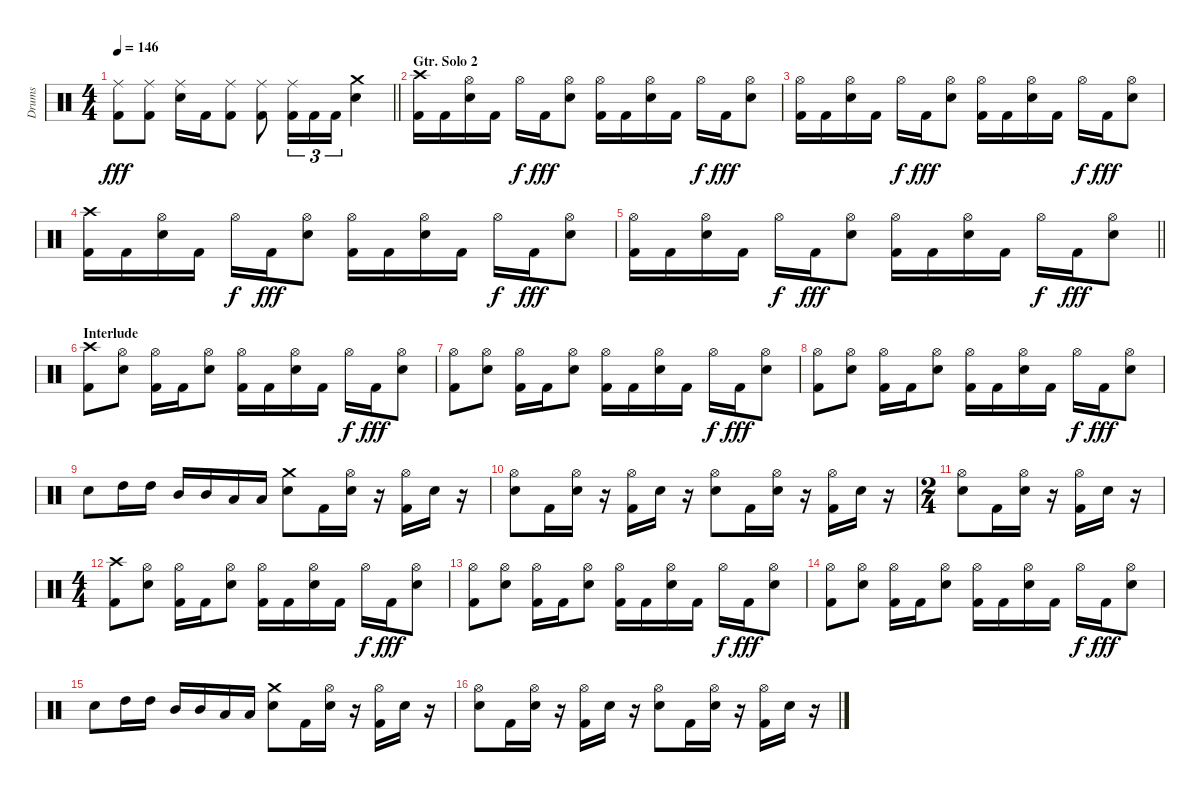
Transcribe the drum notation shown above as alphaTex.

\track ("Drums" "Drums") {instrument percussion}
\staff {score}
\articulation defaults
\ts (4 4)
\tempo 146
\clef neutral
\barLineRight lightlight
\ks c
("Ride (middle)" "Kick (hit) 2").8{dy fff} ("Ride (middle)" "Kick (hit) 2").8 ("Ride (middle)" "Snare (hit) 2").16 "Kick (hit) 2".16 ("Ride (middle)" "Kick (hit) 2").8 ("Ride (middle)" "Kick (hit) 2").8 ("Ride (middle)" "Kick (hit) 2").16{tu (3 2)} "Kick (hit) 2".16{tu (3 2)} "Kick (hit) 2".16{tu (3 2)} ("Crash medium (hit)" "Snare (hit) 2").4 |
\section ("" "Gtr. Solo 2")
("Crash high (hit)" "Kick (hit) 2").16 "Kick (hit) 2".16 ("Hi-Hat (open)" "Snare (hit) 2").16 "Kick (hit) 2".16 "Hi-Hat (open)".16{dy f} "Kick (hit) 2".16{dy fff} ("Hi-Hat (open)" "Snare (hit) 2").8 ("Hi-Hat (open)" "Kick (hit) 2").16 "Kick (hit) 2".16 ("Hi-Hat (open)" "Snare (hit) 2").16 "Kick (hit) 2".16 "Hi-Hat (open)".16{dy f} "Kick (hit) 2".16{dy fff} ("Hi-Hat (open)" "Snare (hit) 2").8 |
("Hi-Hat (open)" "Kick (hit) 2").16 "Kick (hit) 2".16 ("Hi-Hat (open)" "Snare (hit) 2").16 "Kick (hit) 2".16 "Hi-Hat (open)".16{dy f} "Kick (hit) 2".16{dy fff} ("Hi-Hat (open)" "Snare (hit) 2").8 ("Hi-Hat (open)" "Kick (hit) 2").16 "Kick (hit) 2".16 ("Hi-Hat (open)" "Snare (hit) 2").16 "Kick (hit) 2".16 "Hi-Hat (open)".16{dy f} "Kick (hit) 2".16{dy fff} ("Hi-Hat (open)" "Snare (hit) 2").8 |
("Crash high (hit)" "Kick (hit) 2").16 "Kick (hit) 2".16 ("Hi-Hat (open)" "Snare (hit) 2").16 "Kick (hit) 2".16 "Hi-Hat (open)".16{dy f} "Kick (hit) 2".16{dy fff} ("Hi-Hat (open)" "Snare (hit) 2").8 ("Hi-Hat (open)" "Kick (hit) 2").16 "Kick (hit) 2".16 ("Hi-Hat (open)" "Snare (hit) 2").16 "Kick (hit) 2".16 "Hi-Hat (open)".16{dy f} "Kick (hit) 2".16{dy fff} ("Hi-Hat (open)" "Snare (hit) 2").8 |
\barLineRight lightlight
("Hi-Hat (open)" "Kick (hit) 2").16 "Kick (hit) 2".16 ("Hi-Hat (open)" "Snare (hit) 2").16 "Kick (hit) 2".16 "Hi-Hat (open)".16{dy f} "Kick (hit) 2".16{dy fff} ("Hi-Hat (open)" "Snare (hit) 2").8 ("Hi-Hat (open)" "Kick (hit) 2").16 "Kick (hit) 2".16 ("Hi-Hat (open)" "Snare (hit) 2").16 "Kick (hit) 2".16 "Hi-Hat (open)".16{dy f} "Kick (hit) 2".16{dy fff} ("Hi-Hat (open)" "Snare (hit) 2").8 |
\section ("" "Interlude")
("Crash high (hit)" "Kick (hit) 2").8 ("Hi-Hat (open)" "Snare (hit) 2").8 ("Hi-Hat (open)" "Kick (hit) 2").16 "Kick (hit) 2".16 ("Hi-Hat (open)" "Snare (hit) 2").8 ("Hi-Hat (open)" "Kick (hit) 2").16 "Kick (hit) 2".16 ("Hi-Hat (open)" "Snare (hit) 2").16 "Kick (hit) 2".16 "Hi-Hat (open)".16{dy f} "Kick (hit) 2".16{dy fff} ("Hi-Hat (open)" "Snare (hit) 2").8 |
("Hi-Hat (open)" "Kick (hit) 2").8 ("Hi-Hat (open)" "Snare (hit) 2").8 ("Hi-Hat (open)" "Kick (hit) 2").16 "Kick (hit) 2".16 ("Hi-Hat (open)" "Snare (hit) 2").8 ("Hi-Hat (open)" "Kick (hit) 2").16 "Kick (hit) 2".16 ("Hi-Hat (open)" "Snare (hit) 2").16 "Kick (hit) 2".16 "Hi-Hat (open)".16{dy f} "Kick (hit) 2".16{dy fff} ("Hi-Hat (open)" "Snare (hit) 2").8 |
("Hi-Hat (open)" "Kick (hit) 2").8 ("Hi-Hat (open)" "Snare (hit) 2").8 ("Hi-Hat (open)" "Kick (hit) 2").16 "Kick (hit) 2".16 ("Hi-Hat (open)" "Snare (hit) 2").8 ("Hi-Hat (open)" "Kick (hit) 2").16 "Kick (hit) 2".16 ("Hi-Hat (open)" "Snare (hit) 2").16 "Kick (hit) 2".16 "Hi-Hat (open)".16{dy f} "Kick (hit) 2".16{dy fff} ("Hi-Hat (open)" "Snare (hit) 2").8 |
"Snare (hit) 2".8 "High Tom (hit)".16 "High Tom (hit)".16 "Mid Tom (hit)".16 "Mid Tom (hit)".16 "Low Tom (hit)".16 "Low Tom (hit)".16 ("Crash medium (hit)" "Snare (hit) 2").8 "Kick (hit) 2".16 ("Hi-Hat (open)" "Snare (hit) 2").16 r.16 ("Hi-Hat (open)" "Kick (hit) 2").16 "Snare (hit) 2".16 r.16 |
("Hi-Hat (open)" "Snare (hit) 2").8 "Kick (hit) 2".16 ("Hi-Hat (open)" "Snare (hit) 2").16 r.16 ("Hi-Hat (open)" "Kick (hit) 2").16 "Snare (hit) 2".16 r.16 ("Hi-Hat (open)" "Snare (hit) 2").8 "Kick (hit) 2".16 ("Hi-Hat (open)" "Snare (hit) 2").16 r.16 ("Hi-Hat (open)" "Kick (hit) 2").16 "Snare (hit) 2".16 r.16 |
\ts (2 4)
("Hi-Hat (open)" "Snare (hit) 2").8 "Kick (hit) 2".16 ("Hi-Hat (open)" "Snare (hit) 2").16 r.16 ("Hi-Hat (open)" "Kick (hit) 2").16 "Snare (hit) 2".16 r.16 |
\ts (4 4)
("Crash high (hit)" "Kick (hit) 2").8 ("Hi-Hat (open)" "Snare (hit) 2").8 ("Hi-Hat (open)" "Kick (hit) 2").16 "Kick (hit) 2".16 ("Hi-Hat (open)" "Snare (hit) 2").8 ("Hi-Hat (open)" "Kick (hit) 2").16 "Kick (hit) 2".16 ("Hi-Hat (open)" "Snare (hit) 2").16 "Kick (hit) 2".16 "Hi-Hat (open)".16{dy f} "Kick (hit) 2".16{dy fff} ("Hi-Hat (open)" "Snare (hit) 2").8 |
("Hi-Hat (open)" "Kick (hit) 2").8 ("Hi-Hat (open)" "Snare (hit) 2").8 ("Hi-Hat (open)" "Kick (hit) 2").16 "Kick (hit) 2".16 ("Hi-Hat (open)" "Snare (hit) 2").8 ("Hi-Hat (open)" "Kick (hit) 2").16 "Kick (hit) 2".16 ("Hi-Hat (open)" "Snare (hit) 2").16 "Kick (hit) 2".16 "Hi-Hat (open)".16{dy f} "Kick (hit) 2".16{dy fff} ("Hi-Hat (open)" "Snare (hit) 2").8 |
("Hi-Hat (open)" "Kick (hit) 2").8 ("Hi-Hat (open)" "Snare (hit) 2").8 ("Hi-Hat (open)" "Kick (hit) 2").16 "Kick (hit) 2".16 ("Hi-Hat (open)" "Snare (hit) 2").8 ("Hi-Hat (open)" "Kick (hit) 2").16 "Kick (hit) 2".16 ("Hi-Hat (open)" "Snare (hit) 2").16 "Kick (hit) 2".16 "Hi-Hat (open)".16{dy f} "Kick (hit) 2".16{dy fff} ("Hi-Hat (open)" "Snare (hit) 2").8 |
"Snare (hit) 2".8 "High Tom (hit)".16 "High Tom (hit)".16 "Mid Tom (hit)".16 "Mid Tom (hit)".16 "Low Tom (hit)".16 "Low Tom (hit)".16 ("Crash medium (hit)" "Snare (hit) 2").8 "Kick (hit) 2".16 ("Hi-Hat (open)" "Snare (hit) 2").16 r.16 ("Hi-Hat (open)" "Kick (hit) 2").16 "Snare (hit) 2".16 r.16 |
("Hi-Hat (open)" "Snare (hit) 2").8 "Kick (hit) 2".16 ("Hi-Hat (open)" "Snare (hit) 2").16 r.16 ("Hi-Hat (open)" "Kick (hit) 2").16 "Snare (hit) 2".16 r.16 ("Hi-Hat (open)" "Snare (hit) 2").8 "Kick (hit) 2".16 ("Hi-Hat (open)" "Snare (hit) 2").16 r.16 ("Hi-Hat (open)" "Kick (hit) 2").16 "Snare (hit) 2".16 r.16
